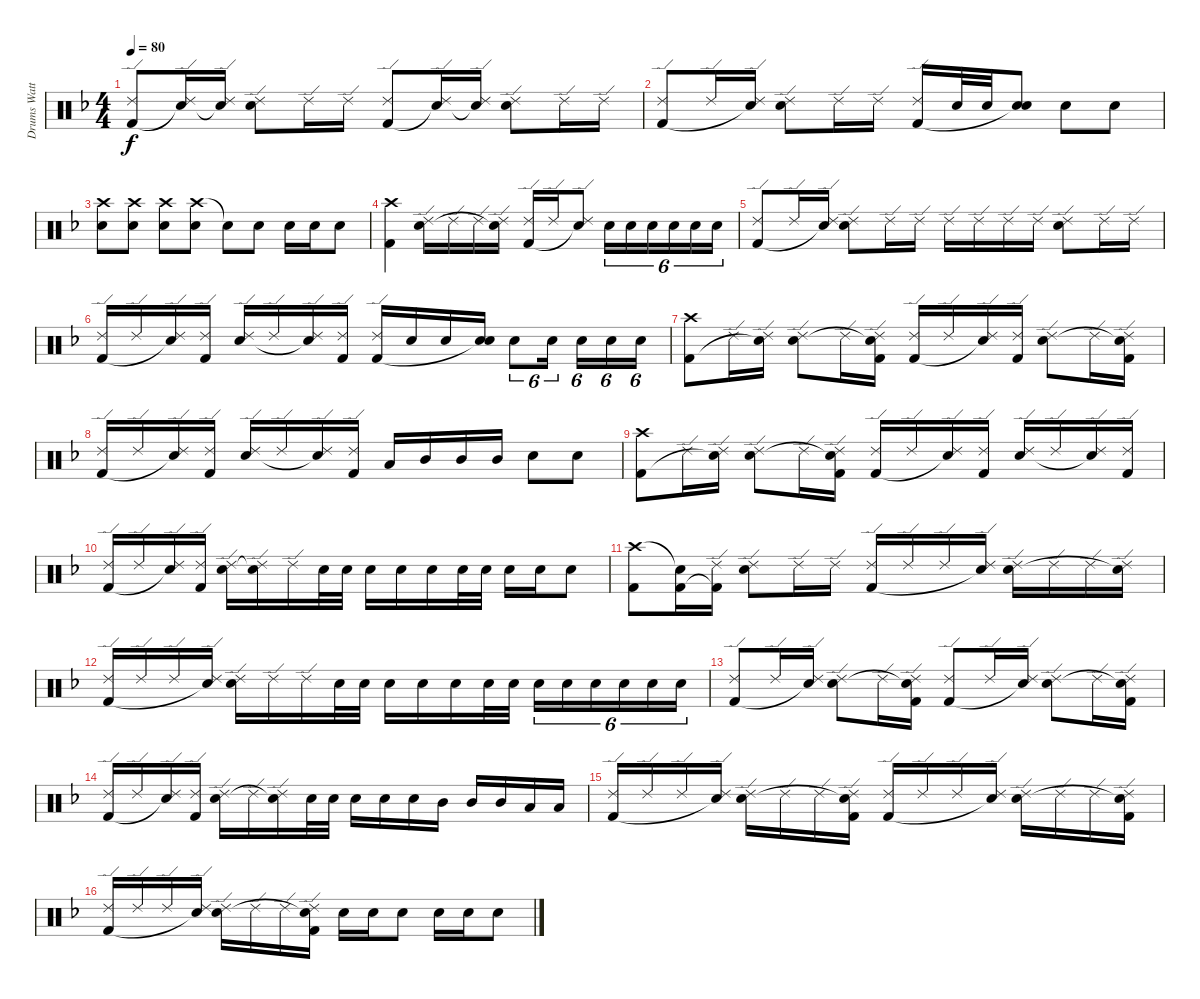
\track ("Drums Watts" "Drums Watt") {instrument percussion}
\staff {score}
\articulation defaults
\ts (4 4)
\tempo 80
\clef neutral
\ks f
("Ride (edge) 2" "Kick (hit) 2").8{dy f} ("Ride (edge) 2" "Snare (hit)"{t}).16 ("Ride (edge) 2" "Snare (hit)"{t}).16 ("Ride (edge) 2" "Snare (hit) 2").8 "Ride (edge) 2".16 "Ride (edge) 2".16 ("Ride (edge) 2" "Kick (hit) 2").8 ("Ride (edge) 2" "Snare (hit)"{t}).16 ("Ride (edge) 2" "Snare (hit)"{t}).16 ("Ride (edge) 2" "Snare (hit) 2").8 "Ride (edge) 2".16 "Ride (edge) 2".16 |
("Ride (edge) 2" "Kick (hit) 2").8 "Ride (edge) 2".16 ("Ride (edge) 2" "Snare (hit)"{t}).16 ("Ride (edge) 2" "Snare (hit) 2").8 "Ride (edge) 2".16 "Ride (edge) 2".16 ("Ride (edge) 2" "Kick (hit) 2").16 "Snare (hit) 2".32 "Snare (hit) 2".32 ("Snare (hit) 2" "Snare (hit)"{t}).8 "Snare (hit) 2".8 "Snare (hit) 2".8 |
("Crash high (hit)" "Snare (hit) 2").8 ("Crash high (hit)" "Snare (hit) 2").8 ("Crash high (hit)" "Snare (hit) 2").8 ("Crash high (hit)" "Snare (hit) 2").8 "Snare (hit)"{t}.8 "Snare (hit) 2".8 "Snare (hit) 2".16 "Snare (hit) 2".16 "Snare (hit) 2".8 |
("Crash high (hit)" "Kick (hit) 2").4 ("Ride (edge) 2" "Snare (hit) 2").16 "Ride (edge) 2".16 "Ride (edge) 2".16 ("Ride (edge) 2" "Snare (hit)"{t}).16 ("Ride (edge) 2" "Kick (hit) 2").16 "Ride (edge) 2".16 ("Ride (edge) 2" "Snare (hit)"{t}).8 "Snare (hit) 2".16{tu (6 4)} "Snare (hit) 2".16{tu (6 4)} "Snare (hit) 2".16{tu (6 4)} "Snare (hit) 2".16{tu (6 4)} "Snare (hit) 2".16{tu (6 4)} "Snare (hit) 2".16{tu (6 4)} |
("Ride (edge) 2" "Kick (hit) 2").8 "Ride (edge) 2".16 ("Ride (edge) 2" "Snare (hit)"{t}).16 ("Ride (edge) 2" "Snare (hit) 2").8 "Ride (edge) 2".16 "Ride (edge) 2".16 "Ride (edge) 2".16 "Ride (edge) 2".16 "Ride (edge) 2".16 "Ride (edge) 2".16 ("Ride (edge) 2" "Snare (hit) 2").8 "Ride (edge) 2".16 "Ride (edge) 2".16 |
("Ride (edge) 2" "Kick (hit) 2").16 "Ride (edge) 2".16 ("Ride (edge) 2" "Snare (hit)"{t}).16 ("Ride (edge) 2" "Kick (hit) 2").16 ("Ride (edge) 2" "Snare (hit) 2").16 "Ride (edge) 2".16 ("Ride (edge) 2" "Snare (hit)"{t}).16 ("Ride (edge) 2" "Kick (hit) 2").16 ("Ride (edge) 2" "Kick (hit) 2").16 "Snare (hit) 2".16 "Snare (hit) 2".16 ("Snare (hit) 2" "Snare (hit)"{t}).16 "Snare (hit) 2".8{tu (6 4)} "Snare (hit) 2".16{tu (6 4)} "Snare (hit) 2".16{tu (6 4)} "Snare (hit) 2".16{tu (6 4)} "Snare (hit) 2".16{tu (6 4)} |
("Crash high (hit)" "Kick (hit) 2").8 "Ride (edge) 2".16 ("Ride (edge) 2" "Snare (hit)"{t}).16 ("Ride (edge) 2" "Snare (hit) 2").8 "Ride (edge) 2".16 ("Ride (edge) 2" "Snare (hit)"{t} "Kick (hit) 2").16 ("Ride (edge) 2" "Kick (hit) 2").16 "Ride (edge) 2".16 ("Ride (edge) 2" "Snare (hit)"{t}).16 ("Ride (edge) 2" "Kick (hit) 2").16 ("Ride (edge) 2" "Snare (hit) 2").8 "Ride (edge) 2".16 ("Ride (edge) 2" "Snare (hit)"{t} "Kick (hit) 2").16 |
("Ride (edge) 2" "Kick (hit) 2").16 "Ride (edge) 2".16 ("Ride (edge) 2" "Snare (hit)"{t}).16 ("Ride (edge) 2" "Kick (hit) 2").16 ("Ride (edge) 2" "Snare (hit) 2").16 "Ride (edge) 2".16 ("Ride (edge) 2" "Snare (hit)"{t}).16 ("Ride (edge) 2" "Kick (hit) 2").16 "Low Tom (hit)".16 "Mid Tom (hit)".16 "Mid Tom (hit)".16 "Mid Tom (hit)".16 "Snare (hit) 2".8 "Snare (hit) 2".8 |
("Crash high (hit)" "Kick (hit) 2").8 "Ride (edge) 2".16 ("Ride (edge) 2" "Snare (hit)"{t}).16 ("Ride (edge) 2" "Snare (hit) 2").8 "Ride (edge) 2".16 ("Ride (edge) 2" "Snare (hit)"{t} "Kick (hit) 2").16 ("Ride (edge) 2" "Kick (hit) 2").16 "Ride (edge) 2".16 ("Ride (edge) 2" "Snare (hit)"{t}).16 ("Ride (edge) 2" "Kick (hit) 2").16 ("Ride (edge) 2" "Snare (hit) 2").16 "Ride (edge) 2".16 ("Ride (edge) 2" "Snare (hit)"{t}).16 ("Ride (edge) 2" "Kick (hit) 2").16 |
("Ride (edge) 2" "Kick (hit) 2").16 "Ride (edge) 2".16 ("Ride (edge) 2" "Snare (hit)"{t}).16 ("Ride (edge) 2" "Kick (hit) 2").16 ("Ride (edge) 2" "Snare (hit) 2").16 ("Ride (edge) 2" "Snare (hit)"{t}).16 "Ride (edge) 2".16 "Snare (hit) 2".32 "Snare (hit) 2".32 "Snare (hit) 2".16 "Snare (hit) 2".16 "Snare (hit) 2".16 "Snare (hit) 2".32 "Snare (hit) 2".32 "Snare (hit) 2".16 "Snare (hit) 2".16 "Snare (hit) 2".8 |
("Crash high (hit)" "Kick (hit) 2").8 ("Snare (hit)"{t} "Kick (hit) 2").16 ("Ride (edge) 2" "Kick (hit) 2"{t}).16 ("Ride (edge) 2" "Snare (hit) 2").8 "Ride (edge) 2".16 "Ride (edge) 2".16 ("Ride (edge) 2" "Kick (hit) 2").16 "Ride (edge) 2".16 "Ride (edge) 2".16 ("Ride (edge) 2" "Snare (hit)"{t}).16 ("Ride (edge) 2" "Snare (hit) 2").16 "Ride (edge) 2".16 "Ride (edge) 2".16 ("Ride (edge) 2" "Snare (hit)"{t}).16 |
("Ride (edge) 2" "Kick (hit) 2").16 "Ride (edge) 2".16 "Ride (edge) 2".16 ("Ride (edge) 2" "Snare (hit)"{t}).16 ("Ride (edge) 2" "Snare (hit) 2").16 "Ride (edge) 2".16 "Ride (edge) 2".16 "Snare (hit) 2".32 "Snare (hit) 2".32 "Snare (hit) 2".16 "Snare (hit) 2".16 "Snare (hit) 2".16 "Snare (hit) 2".32 "Snare (hit) 2".32 "Snare (hit) 2".16{tu (6 4)} "Snare (hit) 2".16{tu (6 4)} "Snare (hit) 2".16{tu (6 4)} "Snare (hit) 2".16{tu (6 4)} "Snare (hit) 2".16{tu (6 4)} "Snare (hit) 2".16{tu (6 4)} |
("Ride (edge) 2" "Kick (hit) 2").8 "Ride (edge) 2".16 ("Ride (edge) 2" "Snare (hit)"{t}).16 ("Ride (edge) 2" "Snare (hit) 2").8 "Ride (edge) 2".16 ("Ride (edge) 2" "Snare (hit)"{t} "Kick (hit) 2").16 ("Ride (edge) 2" "Kick (hit) 2").8 "Ride (edge) 2".16 ("Ride (edge) 2" "Snare (hit)"{t}).16 ("Ride (edge) 2" "Snare (hit) 2").8 "Ride (edge) 2".16 ("Ride (edge) 2" "Snare (hit)"{t} "Kick (hit) 2").16 |
("Ride (edge) 2" "Kick (hit) 2").16 "Ride (edge) 2".16 ("Ride (edge) 2" "Snare (hit)"{t}).16 ("Ride (edge) 2" "Kick (hit) 2").16 ("Ride (edge) 2" "Snare (hit) 2").16 "Ride (edge) 2".16 ("Ride (edge) 2" "Snare (hit)"{t}).16 "Snare (hit) 2".32 "Snare (hit) 2".32 "Snare (hit) 2".16 "Snare (hit) 2".16 "Snare (hit) 2".16 "Mid Tom (hit)".16 "Mid Tom (hit)".16 "Mid Tom (hit)".16 "Low Tom (hit)".16 "Low Tom (hit)".16 |
("Ride (edge) 2" "Kick (hit) 2").16 "Ride (edge) 2".16 "Ride (edge) 2".16 ("Ride (edge) 2" "Snare (hit)"{t}).16 ("Ride (edge) 2" "Snare (hit) 2").16 "Ride (edge) 2".16 "Ride (edge) 2".16 ("Ride (edge) 2" "Snare (hit)"{t} "Kick (hit) 2").16 ("Ride (edge) 2" "Kick (hit) 2").16 "Ride (edge) 2".16 "Ride (edge) 2".16 ("Ride (edge) 2" "Snare (hit)"{t}).16 ("Ride (edge) 2" "Snare (hit) 2").16 "Ride (edge) 2".16 "Ride (edge) 2".16 ("Ride (edge) 2" "Snare (hit)"{t} "Kick (hit) 2").16 |
("Ride (edge) 2" "Kick (hit) 2").16 "Ride (edge) 2".16 "Ride (edge) 2".16 ("Ride (edge) 2" "Snare (hit)"{t}).16 ("Ride (edge) 2" "Snare (hit) 2").16 "Ride (edge) 2".16 "Ride (edge) 2".16 ("Ride (edge) 2" "Snare (hit)"{t} "Kick (hit) 2").16 "Snare (hit) 2".16 "Snare (hit) 2".16 "Snare (hit) 2".8 "Snare (hit) 2".16 "Snare (hit) 2".16 "Snare (hit) 2".8
